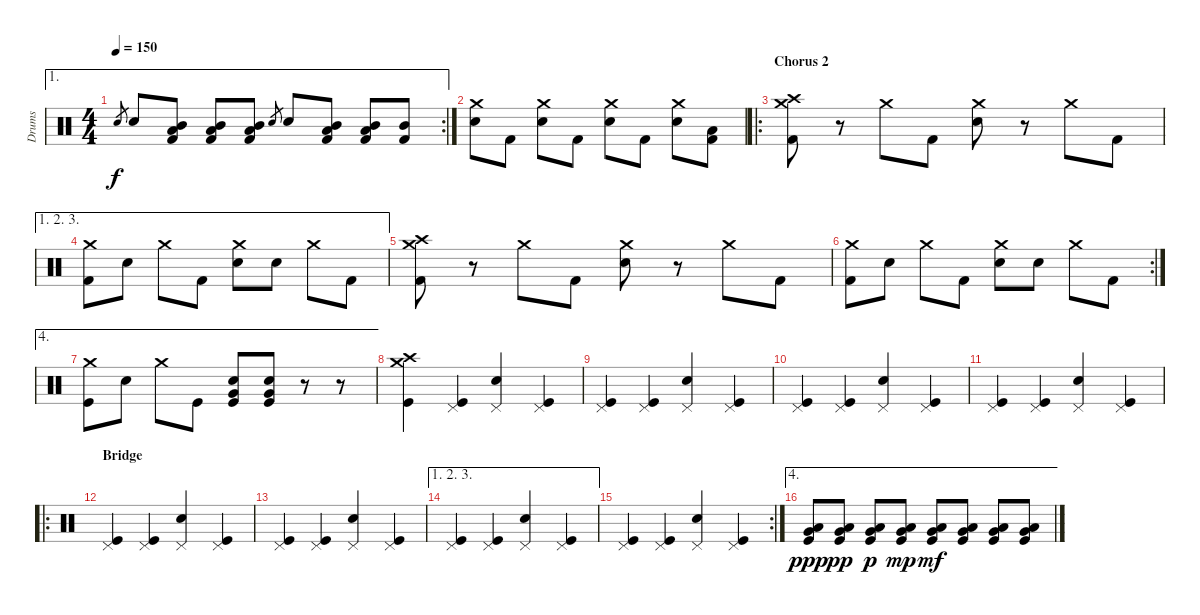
\track ("Drums" "Drums") {instrument percussion}
\staff {score}
\articulation defaults
\ae 1
\rc 2
\ts (4 4)
\tempo 150
\clef neutral
\ks c "Electric Snare (hit)".8{gr dy f} "Electric Snare (hit)".8
("Kick (hit) 2" "Low Tom (hit)" "Mid Tom (hit)").8 ("Kick (hit) 2" "Low Tom (hit)" "Mid Tom (hit)").8 ("Kick (hit) 2" "Low Tom (hit)" "Mid Tom (hit)").8 "Electric Snare (hit)".8{gr} "Electric Snare (hit)".8 ("Kick (hit) 2" "Low Tom (hit)" "Mid Tom (hit)").8 ("Kick (hit) 2" "Low Tom (hit)" "Mid Tom (hit)").8 ("Kick (hit) 2" "Mid Tom (hit)").8 |
("Crash medium (hit)" "Electric Snare (hit)").8 "Kick (hit) 2".8 ("Crash medium (hit)" "Electric Snare (hit)").8 "Kick (hit) 2".8 ("Crash medium (hit)" "Electric Snare (hit)").8 "Kick (hit) 2".8 ("Crash medium (hit)" "Electric Snare (hit)").8 ("Low Floor Tom (hit)" "Kick (hit) 2").8 |
\ro
\section ("" "Chorus 2")
("Crash medium (hit)" "Crash high (hit)" "Kick (hit) 2").8 r.8 "Crash medium (hit)".8 "Kick (hit) 2".8 ("Crash medium (hit)" "Electric Snare (hit)").8 r.8 "Crash medium (hit)".8 "Kick (hit) 2".8 |
\ae (1 2 3)
("Crash medium (hit)" "Kick (hit) 2").8 "Electric Snare (hit)".8 "Crash medium (hit)".8 "Kick (hit) 2".8 ("Crash medium (hit)" "Electric Snare (hit)").8 "Electric Snare (hit)".8 "Crash medium (hit)".8 "Kick (hit) 2".8 |
("Crash medium (hit)" "Crash high (hit)" "Kick (hit) 2").8 r.8 "Crash medium (hit)".8 "Kick (hit) 2".8 ("Crash medium (hit)" "Electric Snare (hit)").8 r.8 "Crash medium (hit)".8 "Kick (hit) 2".8 |
\rc 2
("Crash medium (hit)" "Kick (hit) 2").8 "Electric Snare (hit)".8 "Crash medium (hit)".8 "Kick (hit) 2".8 ("Crash medium (hit)" "Electric Snare (hit)").8 "Electric Snare (hit)".8 "Crash medium (hit)".8 "Kick (hit) 2".8 |
\ae 4
("Crash medium (hit)" "Kick (hit)").8 "Electric Snare (hit)".8 "Crash medium (hit)".8 "Kick (hit)".8 ("Electric Snare (hit)" "Very Low Tom (hit)" "Kick (hit)").8 ("Electric Snare (hit)" "Very Low Tom (hit)" "Kick (hit)").8 r.8 r.8 |
("Crash medium (hit)" "Crash high (hit)" "Kick (hit)").4 ("Pedal Hi-Hat (hit)" "Kick (hit)").4 ("Pedal Hi-Hat (hit)" "Electric Snare (hit)").4 ("Pedal Hi-Hat (hit)" "Kick (hit)").4 |
("Pedal Hi-Hat (hit)" "Kick (hit)").4 ("Pedal Hi-Hat (hit)" "Kick (hit)").4 ("Pedal Hi-Hat (hit)" "Electric Snare (hit)").4 ("Pedal Hi-Hat (hit)" "Kick (hit)").4 |
("Pedal Hi-Hat (hit)" "Kick (hit)").4 ("Pedal Hi-Hat (hit)" "Kick (hit)").4 ("Pedal Hi-Hat (hit)" "Electric Snare (hit)").4 ("Pedal Hi-Hat (hit)" "Kick (hit)").4 |
("Pedal Hi-Hat (hit)" "Kick (hit)").4 ("Pedal Hi-Hat (hit)" "Kick (hit)").4 ("Pedal Hi-Hat (hit)" "Electric Snare (hit)").4 ("Pedal Hi-Hat (hit)" "Kick (hit)").4 |
\ro
\section ("" "Bridge")
("Pedal Hi-Hat (hit)" "Kick (hit)").4 ("Pedal Hi-Hat (hit)" "Kick (hit)").4 ("Pedal Hi-Hat (hit)" "Electric Snare (hit)").4 ("Pedal Hi-Hat (hit)" "Kick (hit)").4 |
("Pedal Hi-Hat (hit)" "Kick (hit)").4 ("Pedal Hi-Hat (hit)" "Kick (hit)").4 ("Pedal Hi-Hat (hit)" "Electric Snare (hit)").4 ("Pedal Hi-Hat (hit)" "Kick (hit)").4 |
\ae (1 2 3)
("Pedal Hi-Hat (hit)" "Kick (hit)").4 ("Pedal Hi-Hat (hit)" "Kick (hit)").4 ("Pedal Hi-Hat (hit)" "Electric Snare (hit)").4 ("Pedal Hi-Hat (hit)" "Kick (hit)").4 |
\rc 2
("Pedal Hi-Hat (hit)" "Kick (hit)").4 ("Pedal Hi-Hat (hit)" "Kick (hit)").4 ("Pedal Hi-Hat (hit)" "Electric Snare (hit)").4 ("Pedal Hi-Hat (hit)" "Kick (hit)").4 |
\ae 4
("Low Floor Tom (hit)" "Very Low Tom (hit)" "Kick (hit)").8{dy ppp} ("Low Floor Tom (hit)" "Very Low Tom (hit)" "Kick (hit)").8{dy pp} ("Low Floor Tom (hit)" "Very Low Tom (hit)" "Kick (hit)").8{dy p} ("Low Floor Tom (hit)" "Very Low Tom (hit)" "Kick (hit)").8{dy mp} ("Low Floor Tom (hit)" "Very Low Tom (hit)" "Kick (hit)").8{dy mf} ("Low Floor Tom (hit)" "Very Low Tom (hit)" "Kick (hit)").8 ("Low Floor Tom (hit)" "Very Low Tom (hit)" "Kick (hit)").8 ("Low Floor Tom (hit)" "Very Low Tom (hit)" "Kick (hit)").8
